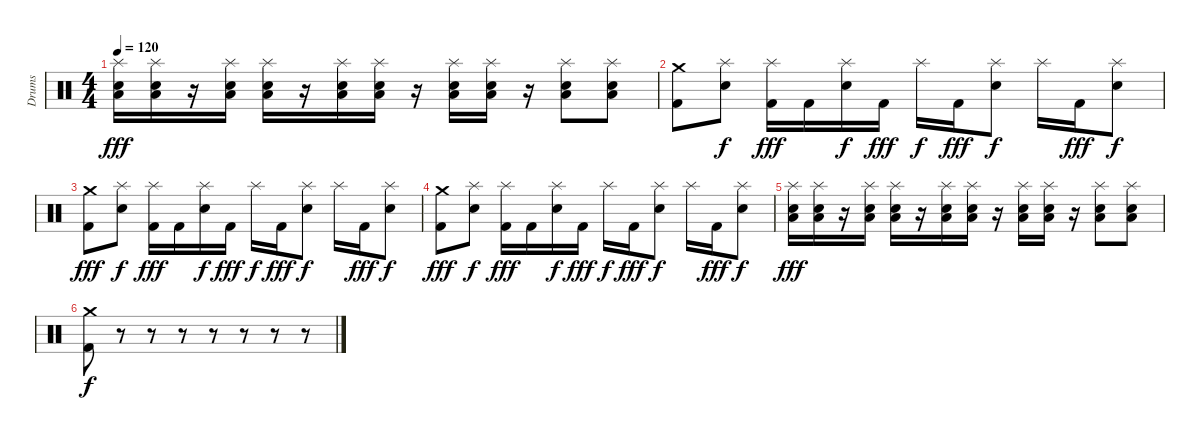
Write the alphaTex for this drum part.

\track ("Drums" "Drums") {instrument percussion}
\staff {score}
\articulation defaults
\ts (4 4)
\tempo 120
\clef neutral
\ks c
("Splash (hit)" "Electric Snare (hit)" "Low Floor Tom (hit)").16{dy fff} ("Splash (hit)" "Electric Snare (hit)" "Low Floor Tom (hit)").16 r.16 ("Splash (hit)" "Electric Snare (hit)" "Low Floor Tom (hit)").16 ("Splash (hit)" "Electric Snare (hit)" "Low Floor Tom (hit)").16 r.16 ("Splash (hit)" "Electric Snare (hit)" "Low Floor Tom (hit)").16 ("Splash (hit)" "Electric Snare (hit)" "Low Floor Tom (hit)").16 r.16 ("Splash (hit)" "Electric Snare (hit)" "Low Floor Tom (hit)").16 ("Splash (hit)" "Electric Snare (hit)" "Low Floor Tom (hit)").16 r.16 ("Splash (hit)" "Electric Snare (hit)" "Low Floor Tom (hit)").8 ("Splash (hit)" "Electric Snare (hit)" "Low Floor Tom (hit)").8 |
("Crash medium (hit)" "Kick (hit) 2").8 ("Splash (hit)" "Electric Snare (hit)").8{dy f} ("Splash (hit)" "Kick (hit) 2").16{dy fff} "Kick (hit) 2".16 ("Splash (hit)" "Electric Snare (hit)").16{dy f} "Kick (hit) 2".16{dy fff} "Splash (hit)".16{dy f} "Kick (hit) 2".16{dy fff} ("Splash (hit)" "Electric Snare (hit)").8{dy f} "Splash (hit)".16 "Kick (hit) 2".16{dy fff} ("Splash (hit)" "Electric Snare (hit)").8{dy f} |
("Crash medium (hit)" "Kick (hit) 2").8{dy fff} ("Splash (hit)" "Electric Snare (hit)").8{dy f} ("Splash (hit)" "Kick (hit) 2").16{dy fff} "Kick (hit) 2".16 ("Splash (hit)" "Electric Snare (hit)").16{dy f} "Kick (hit) 2".16{dy fff} "Splash (hit)".16{dy f} "Kick (hit) 2".16{dy fff} ("Splash (hit)" "Electric Snare (hit)").8{dy f} "Splash (hit)".16 "Kick (hit) 2".16{dy fff} ("Splash (hit)" "Electric Snare (hit)").8{dy f} |
("Crash medium (hit)" "Kick (hit) 2").8{dy fff} ("Splash (hit)" "Electric Snare (hit)").8{dy f} ("Splash (hit)" "Kick (hit) 2").16{dy fff} "Kick (hit) 2".16 ("Splash (hit)" "Electric Snare (hit)").16{dy f} "Kick (hit) 2".16{dy fff} "Splash (hit)".16{dy f} "Kick (hit) 2".16{dy fff} ("Splash (hit)" "Electric Snare (hit)").8{dy f} "Splash (hit)".16 "Kick (hit) 2".16{dy fff} ("Splash (hit)" "Electric Snare (hit)").8{dy f} |
("Splash (hit)" "Electric Snare (hit)" "Low Floor Tom (hit)").16{dy fff} ("Splash (hit)" "Electric Snare (hit)" "Low Floor Tom (hit)").16 r.16 ("Splash (hit)" "Electric Snare (hit)" "Low Floor Tom (hit)").16 ("Splash (hit)" "Electric Snare (hit)" "Low Floor Tom (hit)").16 r.16 ("Splash (hit)" "Electric Snare (hit)" "Low Floor Tom (hit)").16 ("Splash (hit)" "Electric Snare (hit)" "Low Floor Tom (hit)").16 r.16 ("Splash (hit)" "Electric Snare (hit)" "Low Floor Tom (hit)").16 ("Splash (hit)" "Electric Snare (hit)" "Low Floor Tom (hit)").16 r.16 ("Splash (hit)" "Electric Snare (hit)" "Low Floor Tom (hit)").8 ("Splash (hit)" "Electric Snare (hit)" "Low Floor Tom (hit)").8 |
("Crash medium (hit)" "Kick (hit) 2").8{dy f} r.8 r.8 r.8 r.8 r.8 r.8 r.8
